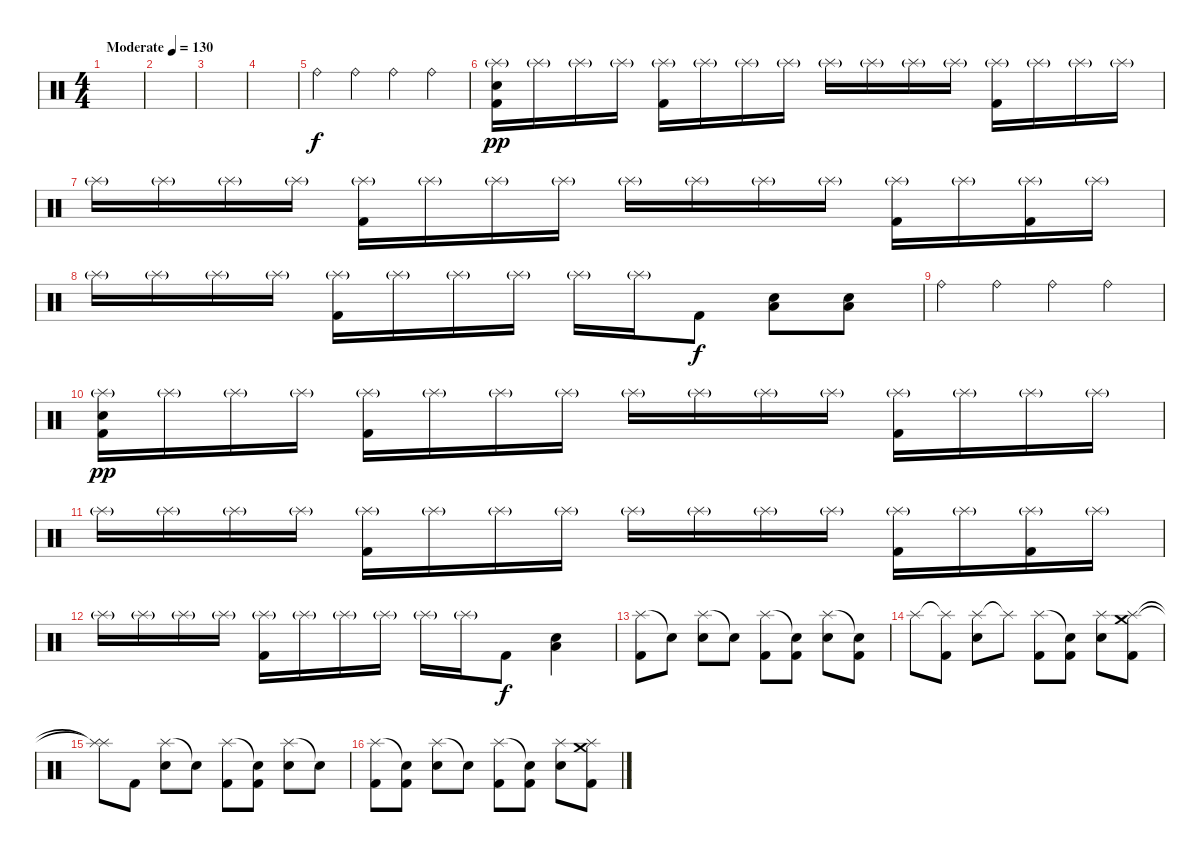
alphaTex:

\track (" " " ") {solo instrument percussion}
\staff {score}
\articulation defaults
\ts (4 4)
\tempo (130 "Moderate")
\clef neutral
\ks c
|
|
|
|
"Ride (bell)".4 "Ride (bell)".4 "Ride (bell)".4 "Ride (bell)".4 |
("Splash (hit)"{g} "Electric Snare (hit)" "Kick (hit) 2").16{dy pp} "Splash (hit)"{g}.16 "Splash (hit)"{g}.16 "Splash (hit)"{g}.16 ("Splash (hit)"{g} "Kick (hit) 2").16 "Splash (hit)"{g}.16 "Splash (hit)"{g}.16 "Splash (hit)"{g}.16 "Splash (hit)"{g}.16 "Splash (hit)"{g}.16 "Splash (hit)"{g}.16 "Splash (hit)"{g}.16 ("Splash (hit)"{g} "Kick (hit) 2").16 "Splash (hit)"{g}.16 "Splash (hit)"{g}.16 "Splash (hit)"{g}.16 |
"Splash (hit)"{g}.16 "Splash (hit)"{g}.16 "Splash (hit)"{g}.16 "Splash (hit)"{g}.16 ("Splash (hit)"{g} "Kick (hit) 2").16 "Splash (hit)"{g}.16 "Splash (hit)"{g}.16 "Splash (hit)"{g}.16 "Splash (hit)"{g}.16 "Splash (hit)"{g}.16 "Splash (hit)"{g}.16 "Splash (hit)"{g}.16 ("Splash (hit)"{g} "Kick (hit) 2").16 "Splash (hit)"{g}.16 ("Splash (hit)"{g} "Kick (hit) 2").16 "Splash (hit)"{g}.16 |
"Splash (hit)"{g}.16 "Splash (hit)"{g}.16 "Splash (hit)"{g}.16 "Splash (hit)"{g}.16 ("Splash (hit)"{g} "Kick (hit) 2").16 "Splash (hit)"{g}.16 "Splash (hit)"{g}.16 "Splash (hit)"{g}.16 "Splash (hit)"{g}.16 "Splash (hit)"{g}.16 "Kick (hit) 2".8{dy f} ("Electric Snare (hit)" "Low Floor Tom (hit)").8 ("Electric Snare (hit)" "Low Floor Tom (hit)").8 |
"Ride (bell)".4 "Ride (bell)".4 "Ride (bell)".4 "Ride (bell)".4 |
("Splash (hit)"{g} "Electric Snare (hit)" "Kick (hit) 2").16{dy pp} "Splash (hit)"{g}.16 "Splash (hit)"{g}.16 "Splash (hit)"{g}.16 ("Splash (hit)"{g} "Kick (hit) 2").16 "Splash (hit)"{g}.16 "Splash (hit)"{g}.16 "Splash (hit)"{g}.16 "Splash (hit)"{g}.16 "Splash (hit)"{g}.16 "Splash (hit)"{g}.16 "Splash (hit)"{g}.16 ("Splash (hit)"{g} "Kick (hit) 2").16 "Splash (hit)"{g}.16 "Splash (hit)"{g}.16 "Splash (hit)"{g}.16 |
"Splash (hit)"{g}.16 "Splash (hit)"{g}.16 "Splash (hit)"{g}.16 "Splash (hit)"{g}.16 ("Splash (hit)"{g} "Kick (hit) 2").16 "Splash (hit)"{g}.16 "Splash (hit)"{g}.16 "Splash (hit)"{g}.16 "Splash (hit)"{g}.16 "Splash (hit)"{g}.16 "Splash (hit)"{g}.16 "Splash (hit)"{g}.16 ("Splash (hit)"{g} "Kick (hit) 2").16 "Splash (hit)"{g}.16 ("Splash (hit)"{g} "Kick (hit) 2").16 "Splash (hit)"{g}.16 |
"Splash (hit)"{g}.16 "Splash (hit)"{g}.16 "Splash (hit)"{g}.16 "Splash (hit)"{g}.16 ("Splash (hit)"{g} "Kick (hit) 2").16 "Splash (hit)"{g}.16 "Splash (hit)"{g}.16 "Splash (hit)"{g}.16 "Splash (hit)"{g}.16 "Splash (hit)"{g}.16 "Kick (hit) 2".8{dy f} ("Electric Snare (hit)" "Low Floor Tom (hit)").4 |
("Splash (hit)" "Kick (hit) 2").8 "Snare (hit)"{t}.8 ("Splash (hit)" "Electric Snare (hit)").8 "Snare (hit)"{t}.8 ("Splash (hit)" "Kick (hit) 2").8 ("Snare (hit)"{t} "Kick (hit) 2").8 ("Splash (hit)" "Electric Snare (hit)").8 ("Snare (hit)"{t} "Kick (hit) 2").8 |
"Splash (hit)".8 ("Splash (hit)"{t} "Kick (hit) 2").8 ("Splash (hit)" "Electric Snare (hit)").8 "Splash (hit)"{t}.8 ("Splash (hit)" "Kick (hit) 2").8 ("Snare (hit)"{t} "Kick (hit) 2").8 ("Splash (hit)" "Electric Snare (hit)").8 ("Crash medium (hit)" "Splash (hit)" "Kick (hit) 2").8 |
("Splash (hit)"{t} "Splash (hit)"{t}).8 "Kick (hit) 2".8 ("Splash (hit)" "Electric Snare (hit)").8 "Snare (hit)"{t}.8 ("Splash (hit)" "Kick (hit) 2").8 ("Snare (hit)"{t} "Kick (hit) 2").8 ("Splash (hit)" "Electric Snare (hit)").8 "Snare (hit)"{t}.8 |
("Splash (hit)" "Kick (hit) 2").8 ("Snare (hit)"{t} "Kick (hit) 2").8 ("Splash (hit)" "Electric Snare (hit)").8 "Snare (hit)"{t}.8 ("Splash (hit)" "Kick (hit) 2").8 ("Snare (hit)"{t} "Kick (hit) 2").8 ("Splash (hit)" "Electric Snare (hit)").8 ("Crash medium (hit)" "Splash (hit)" "Kick (hit) 2").8
